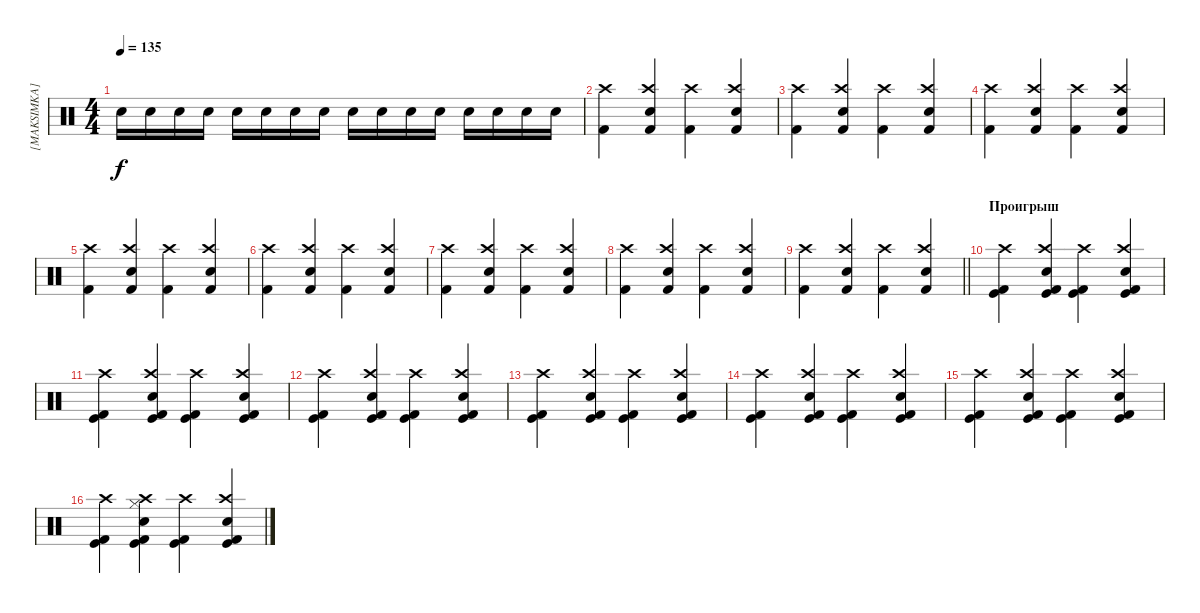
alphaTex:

\track ("[MAKSIMKA]" "[MAKSIMKA]") {instrument percussion}
\staff {score}
\articulation defaults
\ts (4 4)
\tempo 135
\clef neutral
\ks c "Snare (hit) 2".16{dy f} "Snare (hit) 2".16 "Snare (hit) 2".16 "Snare (hit) 2".16 "Snare (hit) 2".16 "Snare (hit) 2".16 "Snare (hit) 2".16 "Snare (hit) 2".16 "Snare (hit) 2".16 "Snare (hit) 2".16 "Snare (hit) 2".16 "Snare (hit) 2".16 "Snare (hit) 2".16 "Snare (hit) 2".16 "Snare (hit) 2".16 "Snare (hit) 2".16
|
("Crash high (hit)" "Kick (hit) 2").4 ("Crash high (hit)" "Kick (hit) 2" "Snare (hit) 2").4 ("Crash high (hit)" "Kick (hit) 2").4 ("Crash high (hit)" "Kick (hit) 2" "Snare (hit) 2").4 |
("Crash high (hit)" "Kick (hit) 2").4 ("Crash high (hit)" "Kick (hit) 2" "Snare (hit) 2").4 ("Crash high (hit)" "Kick (hit) 2").4 ("Crash high (hit)" "Kick (hit) 2" "Snare (hit) 2").4 |
("Crash high (hit)" "Kick (hit) 2").4 ("Crash high (hit)" "Kick (hit) 2" "Snare (hit) 2").4 ("Crash high (hit)" "Kick (hit) 2").4 ("Crash high (hit)" "Kick (hit) 2" "Snare (hit) 2").4 |
("Crash high (hit)" "Kick (hit) 2").4 ("Crash high (hit)" "Kick (hit) 2" "Snare (hit) 2").4 ("Crash high (hit)" "Kick (hit) 2").4 ("Crash high (hit)" "Kick (hit) 2" "Snare (hit) 2").4 |
("Crash high (hit)" "Kick (hit) 2").4 ("Crash high (hit)" "Kick (hit) 2" "Snare (hit) 2").4 ("Crash high (hit)" "Kick (hit) 2").4 ("Crash high (hit)" "Kick (hit) 2" "Snare (hit) 2").4 |
("Crash high (hit)" "Kick (hit) 2").4 ("Crash high (hit)" "Kick (hit) 2" "Snare (hit) 2").4 ("Crash high (hit)" "Kick (hit) 2").4 ("Crash high (hit)" "Kick (hit) 2" "Snare (hit) 2").4 |
("Crash high (hit)" "Kick (hit) 2").4 ("Crash high (hit)" "Kick (hit) 2" "Snare (hit) 2").4 ("Crash high (hit)" "Kick (hit) 2").4 ("Crash high (hit)" "Kick (hit) 2" "Snare (hit) 2").4 |
\barLineRight lightlight
("Crash high (hit)" "Kick (hit) 2").4 ("Crash high (hit)" "Kick (hit) 2" "Snare (hit) 2").4 ("Crash high (hit)" "Kick (hit) 2").4 ("Crash high (hit)" "Kick (hit) 2" "Snare (hit) 2").4 |
\section ("" "Проигрыш")
("Kick (hit) 2" "Crash high (hit)" "Kick (hit)").4 ("Kick (hit) 2" "Snare (hit) 2" "Crash high (hit)" "Kick (hit)").4 ("Kick (hit) 2" "Crash high (hit)" "Kick (hit)").4 ("Kick (hit) 2" "Snare (hit) 2" "Crash high (hit)" "Kick (hit)").4 |
("Kick (hit) 2" "Crash high (hit)" "Kick (hit)").4 ("Kick (hit) 2" "Snare (hit) 2" "Crash high (hit)" "Kick (hit)").4 ("Kick (hit) 2" "Crash high (hit)" "Kick (hit)").4 ("Kick (hit) 2" "Snare (hit) 2" "Crash high (hit)" "Kick (hit)").4 |
("Kick (hit) 2" "Crash high (hit)" "Kick (hit)").4 ("Kick (hit) 2" "Snare (hit) 2" "Crash high (hit)" "Kick (hit)").4 ("Kick (hit) 2" "Crash high (hit)" "Kick (hit)").4 ("Kick (hit) 2" "Snare (hit) 2" "Crash high (hit)" "Kick (hit)").4 |
("Kick (hit) 2" "Crash high (hit)" "Kick (hit)").4 ("Kick (hit) 2" "Snare (hit) 2" "Crash high (hit)" "Kick (hit)").4 ("Kick (hit) 2" "Crash high (hit)" "Kick (hit)").4 ("Kick (hit) 2" "Snare (hit) 2" "Crash high (hit)" "Kick (hit)").4 |
("Kick (hit) 2" "Crash high (hit)" "Kick (hit)").4 ("Kick (hit) 2" "Snare (hit) 2" "Crash high (hit)" "Kick (hit)").4 ("Kick (hit) 2" "Crash high (hit)" "Kick (hit)").4 ("Kick (hit) 2" "Snare (hit) 2" "Crash high (hit)" "Kick (hit)").4 |
("Kick (hit) 2" "Crash high (hit)" "Kick (hit)").4 ("Kick (hit) 2" "Snare (hit) 2" "Crash high (hit)" "Kick (hit)").4 ("Kick (hit) 2" "Crash high (hit)" "Kick (hit)").4 ("Kick (hit) 2" "Snare (hit) 2" "Crash high (hit)" "Kick (hit)").4 |
("Kick (hit) 2" "Crash high (hit)" "Kick (hit)").4 ("Kick (hit) 2" "Snare (hit) 2" "Hi-Hat (closed)" "Crash high (hit)" "Kick (hit)").4 ("Kick (hit) 2" "Crash high (hit)" "Kick (hit)").4 ("Kick (hit) 2" "Snare (hit) 2" "Crash high (hit)" "Kick (hit)").4
